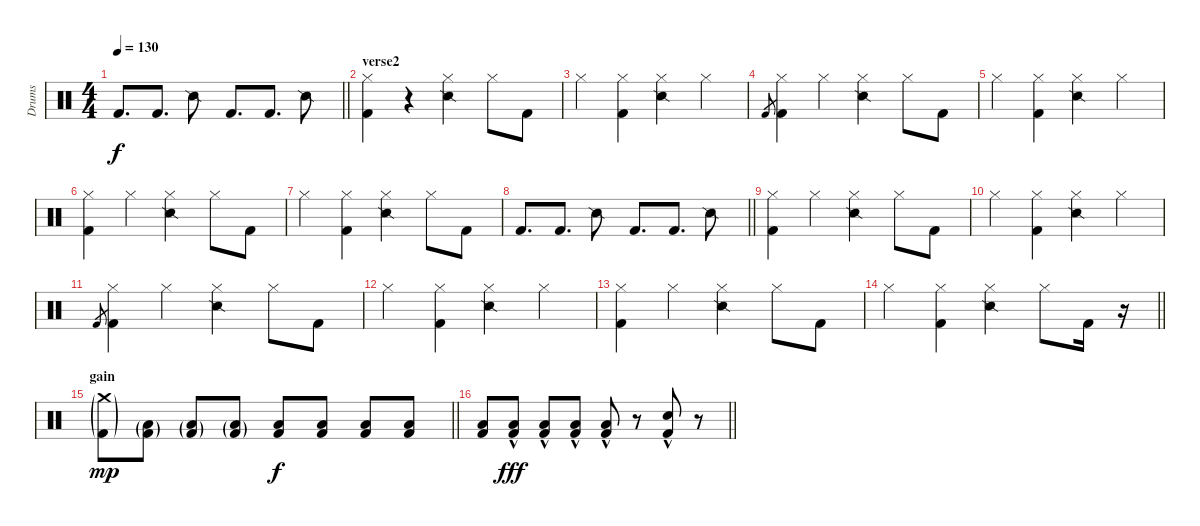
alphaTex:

\track ("Drums" "Drums") {instrument percussion}
\staff {score}
\articulation defaults
\ts (4 4)
\tempo 130
\clef neutral
\barLineRight lightlight
\ks c "Kick (hit) 2".8{d dy f} "Kick (hit) 2".8{d} "Snare (side stick) 2".8 "Kick (hit) 2".8{d} "Kick (hit) 2".8{d} "Snare (side stick) 2".8
|
\section ("" "verse2")
("Hi-Hat (closed)" "Kick (hit) 2").4 r.4 ("Hi-Hat (closed)" "Snare (side stick) 2").4 "Hi-Hat (closed)".8 "Kick (hit) 2".8 |
"Hi-Hat (closed)".4 ("Kick (hit) 2" "Hi-Hat (closed)").4 ("Hi-Hat (closed)" "Snare (side stick) 2").4 "Hi-Hat (closed)".4 |
"Kick (hit) 2".8{gr} ("Hi-Hat (closed)" "Kick (hit) 2").4 "Hi-Hat (closed)".4 ("Hi-Hat (closed)" "Snare (side stick) 2").4 "Hi-Hat (closed)".8 "Kick (hit) 2".8 |
"Hi-Hat (closed)".4 ("Kick (hit) 2" "Hi-Hat (closed)").4 ("Hi-Hat (closed)" "Snare (side stick) 2").4 "Hi-Hat (closed)".4 |
("Hi-Hat (closed)" "Kick (hit) 2").4 "Hi-Hat (closed)".4 ("Hi-Hat (closed)" "Snare (side stick) 2").4 "Hi-Hat (closed)".8 "Kick (hit) 2".8 |
"Hi-Hat (closed)".4 ("Kick (hit) 2" "Hi-Hat (closed)").4 ("Hi-Hat (closed)" "Snare (side stick) 2").4 "Hi-Hat (closed)".8 "Kick (hit) 2".8 |
\barLineRight lightlight "Kick (hit) 2".8{d} "Kick (hit) 2".8{d} "Snare (side stick) 2".8 "Kick (hit) 2".8{d} "Kick (hit) 2".8{d} "Snare (side stick) 2".8
|
("Hi-Hat (closed)" "Kick (hit) 2").4 "Hi-Hat (closed)".4 ("Hi-Hat (closed)" "Snare (side stick) 2").4 "Hi-Hat (closed)".8 "Kick (hit) 2".8 |
"Hi-Hat (closed)".4 ("Kick (hit) 2" "Hi-Hat (closed)").4 ("Hi-Hat (closed)" "Snare (side stick) 2").4 "Hi-Hat (closed)".4 |
"Kick (hit) 2".8{gr} ("Hi-Hat (closed)" "Kick (hit) 2").4 "Hi-Hat (closed)".4 ("Hi-Hat (closed)" "Snare (side stick) 2").4 "Hi-Hat (closed)".8 "Kick (hit) 2".8 |
"Hi-Hat (closed)".4 ("Kick (hit) 2" "Hi-Hat (closed)").4 ("Hi-Hat (closed)" "Snare (side stick) 2").4 "Hi-Hat (closed)".4 |
("Hi-Hat (closed)" "Kick (hit) 2").4 "Hi-Hat (closed)".4 ("Hi-Hat (closed)" "Snare (side stick) 2").4 "Hi-Hat (closed)".8 "Kick (hit) 2".8 |
\barLineRight lightlight "Hi-Hat (closed)".4
("Kick (hit) 2" "Hi-Hat (closed)").4 ("Hi-Hat (closed)" "Snare (side stick) 2").4 "Hi-Hat (closed)".8 "Kick (hit) 2".16 r.16{volume 9} |
\section ("" "gain")
\barLineRight lightlight
("Kick (hit) 2"{g} "Crash medium (hit)"{g}).8{dy mp volume 16} ("Kick (hit) 2"{g} "Low Floor Tom (hit)"{g}).8 ("Kick (hit) 2"{g} "Low Floor Tom (hit)"{g}).8 ("Kick (hit) 2"{g} "Low Floor Tom (hit)"{g}).8 ("Kick (hit) 2" "Low Floor Tom (hit)").8{dy f} ("Kick (hit) 2" "Low Floor Tom (hit)").8 ("Kick (hit) 2" "Low Floor Tom (hit)").8 ("Kick (hit) 2" "Low Floor Tom (hit)").8 |
\barLineRight lightlight
("Kick (hit) 2" "Low Floor Tom (hit)").8 ("Kick (hit) 2"{hac} "Low Floor Tom (hit)"{hac}).8{dy fff} ("Kick (hit) 2"{hac} "Low Floor Tom (hit)"{hac}).8 ("Kick (hit) 2"{hac} "Low Floor Tom (hit)"{hac}).8 ("Kick (hit) 2"{hac} "Low Floor Tom (hit)"{hac}).8 r.8 ("Kick (hit) 2"{hac} "Electric Snare (hit)"{hac}).8 r.8
